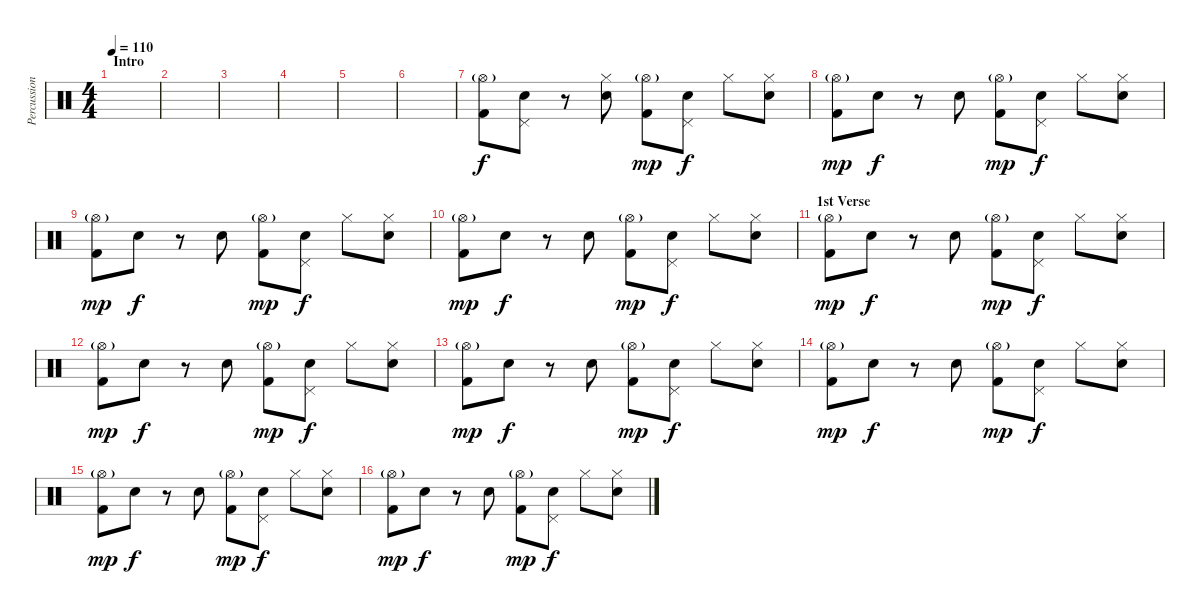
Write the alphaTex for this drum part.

\track ("Percussion" "Percussion") {instrument percussion}
\staff {score}
\articulation defaults
\ts (4 4)
\section ("" "Intro")
\tempo 110
\clef neutral
\ks c
|
|
|
|
|
|
("Hi-Hat (open)"{g} "Kick (hit) 2").8 ("Pedal Hi-Hat (hit)" "Electric Snare (hit)").8{dy f} r.8 ("Hi-Hat (closed)" "Electric Snare (hit)").8 ("Hi-Hat (open)"{g} "Kick (hit) 2").8{dy mp} ("Pedal Hi-Hat (hit)" "Electric Snare (hit)").8{dy f} "Hi-Hat (closed)".8 ("Hi-Hat (closed)" "Electric Snare (hit)").8 |
("Hi-Hat (open)"{g} "Kick (hit) 2").8{dy mp} "Electric Snare (hit)".8{dy f} r.8 "Electric Snare (hit)".8 ("Hi-Hat (open)"{g} "Kick (hit) 2").8{dy mp} ("Pedal Hi-Hat (hit)" "Electric Snare (hit)").8{dy f} "Hi-Hat (closed)".8 ("Hi-Hat (closed)" "Electric Snare (hit)").8 |
("Hi-Hat (open)"{g} "Kick (hit) 2").8{dy mp} "Electric Snare (hit)".8{dy f} r.8 "Electric Snare (hit)".8 ("Hi-Hat (open)"{g} "Kick (hit) 2").8{dy mp} ("Pedal Hi-Hat (hit)" "Electric Snare (hit)").8{dy f} "Hi-Hat (closed)".8 ("Hi-Hat (closed)" "Electric Snare (hit)").8 |
("Hi-Hat (open)"{g} "Kick (hit) 2").8{dy mp} "Electric Snare (hit)".8{dy f} r.8 "Electric Snare (hit)".8 ("Hi-Hat (open)"{g} "Kick (hit) 2").8{dy mp} ("Pedal Hi-Hat (hit)" "Electric Snare (hit)").8{dy f} "Hi-Hat (closed)".8 ("Hi-Hat (closed)" "Electric Snare (hit)").8 |
\section ("" "1st Verse")
("Hi-Hat (open)"{g} "Kick (hit) 2").8{dy mp} "Electric Snare (hit)".8{dy f} r.8 "Electric Snare (hit)".8 ("Hi-Hat (open)"{g} "Kick (hit) 2").8{dy mp} ("Pedal Hi-Hat (hit)" "Electric Snare (hit)").8{dy f} "Hi-Hat (closed)".8 ("Hi-Hat (closed)" "Electric Snare (hit)").8 |
("Hi-Hat (open)"{g} "Kick (hit) 2").8{dy mp} "Electric Snare (hit)".8{dy f} r.8 "Electric Snare (hit)".8 ("Hi-Hat (open)"{g} "Kick (hit) 2").8{dy mp} ("Pedal Hi-Hat (hit)" "Electric Snare (hit)").8{dy f} "Hi-Hat (closed)".8 ("Hi-Hat (closed)" "Electric Snare (hit)").8 |
("Hi-Hat (open)"{g} "Kick (hit) 2").8{dy mp} "Electric Snare (hit)".8{dy f} r.8 "Electric Snare (hit)".8 ("Hi-Hat (open)"{g} "Kick (hit) 2").8{dy mp} ("Pedal Hi-Hat (hit)" "Electric Snare (hit)").8{dy f} "Hi-Hat (closed)".8 ("Hi-Hat (closed)" "Electric Snare (hit)").8 |
("Hi-Hat (open)"{g} "Kick (hit) 2").8{dy mp} "Electric Snare (hit)".8{dy f} r.8 "Electric Snare (hit)".8 ("Hi-Hat (open)"{g} "Kick (hit) 2").8{dy mp} ("Pedal Hi-Hat (hit)" "Electric Snare (hit)").8{dy f} "Hi-Hat (closed)".8 ("Hi-Hat (closed)" "Electric Snare (hit)").8 |
("Hi-Hat (open)"{g} "Kick (hit) 2").8{dy mp} "Electric Snare (hit)".8{dy f} r.8 "Electric Snare (hit)".8 ("Hi-Hat (open)"{g} "Kick (hit) 2").8{dy mp} ("Pedal Hi-Hat (hit)" "Electric Snare (hit)").8{dy f} "Hi-Hat (closed)".8 ("Hi-Hat (closed)" "Electric Snare (hit)").8 |
("Hi-Hat (open)"{g} "Kick (hit) 2").8{dy mp} "Electric Snare (hit)".8{dy f} r.8 "Electric Snare (hit)".8 ("Hi-Hat (open)"{g} "Kick (hit) 2").8{dy mp} ("Pedal Hi-Hat (hit)" "Electric Snare (hit)").8{dy f} "Hi-Hat (closed)".8 ("Hi-Hat (closed)" "Electric Snare (hit)").8
